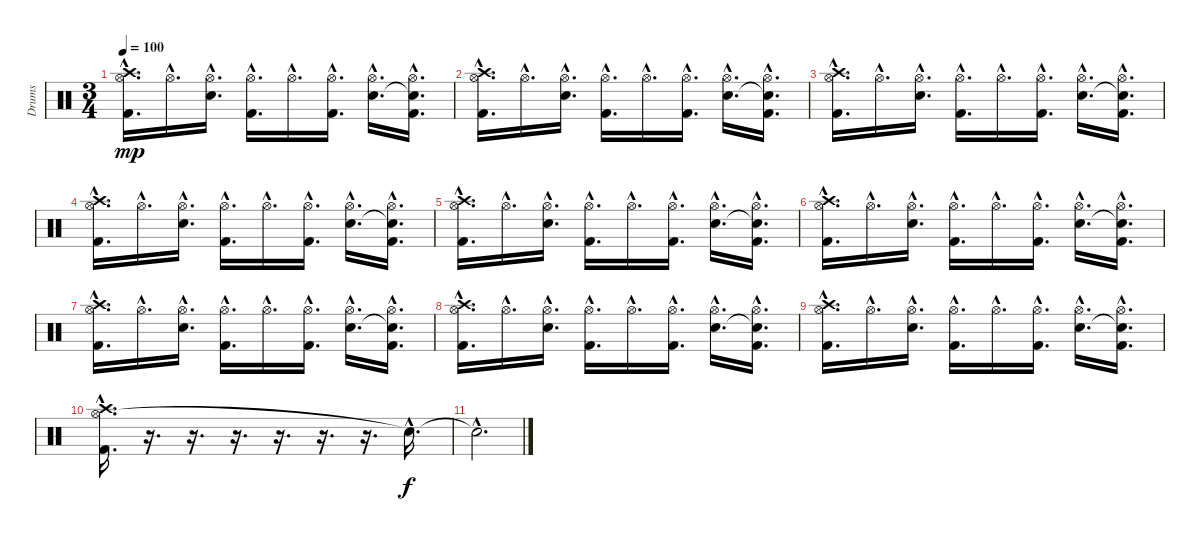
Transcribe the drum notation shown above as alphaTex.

\track ("Drums" "Drums") {instrument percussion}
\staff {score}
\articulation defaults
\ts (3 4)
\tempo 100
\clef neutral
\ks c
("Hi-Hat (open)"{hac} "Crash high (hit)"{hac} "Kick (hit) 2"{hac}).16{d dy mp} "Hi-Hat (open)"{hac}.16{d} ("Hi-Hat (open)"{hac} "Electric Snare (hit)"{hac}).16{d} ("Hi-Hat (open)"{hac} "Kick (hit) 2"{hac}).16{d} "Hi-Hat (open)"{hac}.16{d} ("Hi-Hat (open)"{hac} "Kick (hit) 2"{hac}).16{d} ("Hi-Hat (open)"{hac} "Electric Snare (hit)"{hac}).16{d} ("Hi-Hat (open)"{hac} "Snare (hit)"{hac t} "Kick (hit) 2"{hac}).16{d} |
("Hi-Hat (open)"{hac} "Crash high (hit)"{hac} "Kick (hit) 2"{hac}).16{d} "Hi-Hat (open)"{hac}.16{d} ("Hi-Hat (open)"{hac} "Electric Snare (hit)"{hac}).16{d} ("Hi-Hat (open)"{hac} "Kick (hit) 2"{hac}).16{d} "Hi-Hat (open)"{hac}.16{d} ("Hi-Hat (open)"{hac} "Kick (hit) 2"{hac}).16{d} ("Hi-Hat (open)"{hac} "Electric Snare (hit)"{hac}).16{d} ("Hi-Hat (open)"{hac} "Snare (hit)"{hac t} "Kick (hit) 2"{hac}).16{d} |
("Hi-Hat (open)"{hac} "Crash high (hit)"{hac} "Kick (hit) 2"{hac}).16{d} "Hi-Hat (open)"{hac}.16{d} ("Hi-Hat (open)"{hac} "Electric Snare (hit)"{hac}).16{d} ("Hi-Hat (open)"{hac} "Kick (hit) 2"{hac}).16{d} "Hi-Hat (open)"{hac}.16{d} ("Hi-Hat (open)"{hac} "Kick (hit) 2"{hac}).16{d} ("Hi-Hat (open)"{hac} "Electric Snare (hit)"{hac}).16{d} ("Hi-Hat (open)"{hac} "Snare (hit)"{hac t} "Kick (hit) 2"{hac}).16{d} |
("Hi-Hat (open)"{hac} "Crash high (hit)"{hac} "Kick (hit) 2"{hac}).16{d} "Hi-Hat (open)"{hac}.16{d} ("Hi-Hat (open)"{hac} "Electric Snare (hit)"{hac}).16{d} ("Hi-Hat (open)"{hac} "Kick (hit) 2"{hac}).16{d} "Hi-Hat (open)"{hac}.16{d} ("Hi-Hat (open)"{hac} "Kick (hit) 2"{hac}).16{d} ("Hi-Hat (open)"{hac} "Electric Snare (hit)"{hac}).16{d} ("Hi-Hat (open)"{hac} "Snare (hit)"{hac t} "Kick (hit) 2"{hac}).16{d} |
("Hi-Hat (open)"{hac} "Crash high (hit)"{hac} "Kick (hit) 2"{hac}).16{d} "Hi-Hat (open)"{hac}.16{d} ("Hi-Hat (open)"{hac} "Electric Snare (hit)"{hac}).16{d} ("Hi-Hat (open)"{hac} "Kick (hit) 2"{hac}).16{d} "Hi-Hat (open)"{hac}.16{d} ("Hi-Hat (open)"{hac} "Kick (hit) 2"{hac}).16{d} ("Hi-Hat (open)"{hac} "Electric Snare (hit)"{hac}).16{d} ("Hi-Hat (open)"{hac} "Snare (hit)"{hac t} "Kick (hit) 2"{hac}).16{d} |
("Hi-Hat (open)"{hac} "Crash high (hit)"{hac} "Kick (hit) 2"{hac}).16{d} "Hi-Hat (open)"{hac}.16{d} ("Hi-Hat (open)"{hac} "Electric Snare (hit)"{hac}).16{d} ("Hi-Hat (open)"{hac} "Kick (hit) 2"{hac}).16{d} "Hi-Hat (open)"{hac}.16{d} ("Hi-Hat (open)"{hac} "Kick (hit) 2"{hac}).16{d} ("Hi-Hat (open)"{hac} "Electric Snare (hit)"{hac}).16{d} ("Hi-Hat (open)"{hac} "Snare (hit)"{hac t} "Kick (hit) 2"{hac}).16{d} |
("Hi-Hat (open)"{hac} "Crash high (hit)"{hac} "Kick (hit) 2"{hac}).16{d} "Hi-Hat (open)"{hac}.16{d} ("Hi-Hat (open)"{hac} "Electric Snare (hit)"{hac}).16{d} ("Hi-Hat (open)"{hac} "Kick (hit) 2"{hac}).16{d} "Hi-Hat (open)"{hac}.16{d} ("Hi-Hat (open)"{hac} "Kick (hit) 2"{hac}).16{d} ("Hi-Hat (open)"{hac} "Electric Snare (hit)"{hac}).16{d} ("Hi-Hat (open)"{hac} "Snare (hit)"{hac t} "Kick (hit) 2"{hac}).16{d} |
("Hi-Hat (open)"{hac} "Crash high (hit)"{hac} "Kick (hit) 2"{hac}).16{d} "Hi-Hat (open)"{hac}.16{d} ("Hi-Hat (open)"{hac} "Electric Snare (hit)"{hac}).16{d} ("Hi-Hat (open)"{hac} "Kick (hit) 2"{hac}).16{d} "Hi-Hat (open)"{hac}.16{d} ("Hi-Hat (open)"{hac} "Kick (hit) 2"{hac}).16{d} ("Hi-Hat (open)"{hac} "Electric Snare (hit)"{hac}).16{d} ("Hi-Hat (open)"{hac} "Snare (hit)"{hac t} "Kick (hit) 2"{hac}).16{d} |
("Hi-Hat (open)"{hac} "Crash high (hit)"{hac} "Kick (hit) 2"{hac}).16{d} "Hi-Hat (open)"{hac}.16{d} ("Hi-Hat (open)"{hac} "Electric Snare (hit)"{hac}).16{d} ("Hi-Hat (open)"{hac} "Kick (hit) 2"{hac}).16{d} "Hi-Hat (open)"{hac}.16{d} ("Hi-Hat (open)"{hac} "Kick (hit) 2"{hac}).16{d} ("Hi-Hat (open)"{hac} "Electric Snare (hit)"{hac}).16{d} ("Hi-Hat (open)"{hac} "Snare (hit)"{hac t} "Kick (hit) 2"{hac}).16{d} |
("Hi-Hat (open)"{hac} "Crash high (hit)"{hac} "Kick (hit) 2"{hac}).16{d} r.16{d} r.16{d} r.16{d} r.16{d} r.16{d} r.16{d} "Snare (hit)"{hac t}.16{d dy f} |
"Snare (hit)"{hac t}.2{d}
